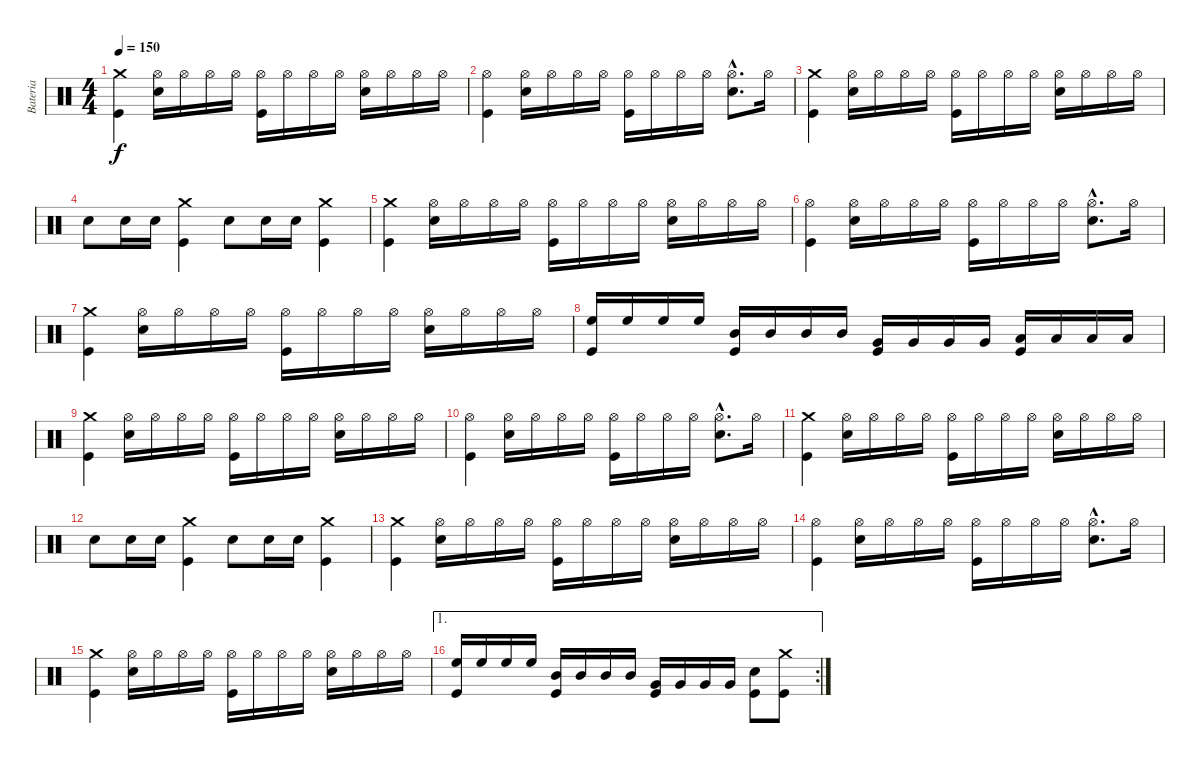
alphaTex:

\track ("Bateria" "Bateria") {instrument percussion}
\staff {score}
\articulation defaults
\ts (4 4)
\tempo 150
\clef neutral
\ks c
("Crash medium (hit)" "Kick (hit)").4{dy f} ("Hi-Hat (open)" "Snare (hit) 2").16 "Hi-Hat (open)".16 "Hi-Hat (open)".16 "Hi-Hat (open)".16 ("Hi-Hat (open)" "Kick (hit)").16 "Hi-Hat (open)".16 "Hi-Hat (open)".16 "Hi-Hat (open)".16 ("Hi-Hat (open)" "Snare (hit) 2").16 "Hi-Hat (open)".16 "Hi-Hat (open)".16 "Hi-Hat (open)".16 |
("Hi-Hat (open)" "Kick (hit)").4 ("Hi-Hat (open)" "Snare (hit) 2").16 "Hi-Hat (open)".16 "Hi-Hat (open)".16 "Hi-Hat (open)".16 ("Hi-Hat (open)" "Kick (hit)").16 "Hi-Hat (open)".16 "Hi-Hat (open)".16 "Hi-Hat (open)".16 ("Hi-Hat (open)"{hac} "Snare (hit) 2"{hac}).8{d} "Hi-Hat (open)".16 |
("Crash medium (hit)" "Kick (hit)").4 ("Hi-Hat (open)" "Snare (hit) 2").16 "Hi-Hat (open)".16 "Hi-Hat (open)".16 "Hi-Hat (open)".16 ("Hi-Hat (open)" "Kick (hit)").16 "Hi-Hat (open)".16 "Hi-Hat (open)".16 "Hi-Hat (open)".16 ("Hi-Hat (open)" "Snare (hit) 2").16 "Hi-Hat (open)".16 "Hi-Hat (open)".16 "Hi-Hat (open)".16 |
"Snare (hit) 2".8 "Snare (hit) 2".16 "Snare (hit) 2".16 ("Crash medium (hit)" "Kick (hit)").4 "Snare (hit) 2".8 "Snare (hit) 2".16 "Snare (hit) 2".16 ("Crash medium (hit)" "Kick (hit)").4 |
("Crash medium (hit)" "Kick (hit)").4 ("Hi-Hat (open)" "Snare (hit) 2").16 "Hi-Hat (open)".16 "Hi-Hat (open)".16 "Hi-Hat (open)".16 ("Hi-Hat (open)" "Kick (hit)").16 "Hi-Hat (open)".16 "Hi-Hat (open)".16 "Hi-Hat (open)".16 ("Hi-Hat (open)" "Snare (hit) 2").16 "Hi-Hat (open)".16 "Hi-Hat (open)".16 "Hi-Hat (open)".16 |
("Hi-Hat (open)" "Kick (hit)").4 ("Hi-Hat (open)" "Snare (hit) 2").16 "Hi-Hat (open)".16 "Hi-Hat (open)".16 "Hi-Hat (open)".16 ("Hi-Hat (open)" "Kick (hit)").16 "Hi-Hat (open)".16 "Hi-Hat (open)".16 "Hi-Hat (open)".16 ("Hi-Hat (open)"{hac} "Snare (hit) 2"{hac}).8{d} "Hi-Hat (open)".16 |
("Crash medium (hit)" "Kick (hit)").4 ("Hi-Hat (open)" "Snare (hit) 2").16 "Hi-Hat (open)".16 "Hi-Hat (open)".16 "Hi-Hat (open)".16 ("Hi-Hat (open)" "Kick (hit)").16 "Hi-Hat (open)".16 "Hi-Hat (open)".16 "Hi-Hat (open)".16 ("Hi-Hat (open)" "Snare (hit) 2").16 "Hi-Hat (open)".16 "Hi-Hat (open)".16 "Hi-Hat (open)".16 |
("High Floor Tom (hit)" "Kick (hit)").16 "High Floor Tom (hit)".16 "High Floor Tom (hit)".16 "High Floor Tom (hit)".16 ("Mid Tom (hit)" "Kick (hit)").16 "Mid Tom (hit)".16 "Mid Tom (hit)".16 "Mid Tom (hit)".16 ("Very Low Tom (hit)" "Kick (hit)").16 "Very Low Tom (hit)".16 "Very Low Tom (hit)".16 "Very Low Tom (hit)".16 ("Low Floor Tom (hit)" "Kick (hit)").16 "Low Floor Tom (hit)".16 "Low Floor Tom (hit)".16 "Low Floor Tom (hit)".16 |
("Crash medium (hit)" "Kick (hit)").4 ("Hi-Hat (open)" "Snare (hit) 2").16 "Hi-Hat (open)".16 "Hi-Hat (open)".16 "Hi-Hat (open)".16 ("Hi-Hat (open)" "Kick (hit)").16 "Hi-Hat (open)".16 "Hi-Hat (open)".16 "Hi-Hat (open)".16 ("Hi-Hat (open)" "Snare (hit) 2").16 "Hi-Hat (open)".16 "Hi-Hat (open)".16 "Hi-Hat (open)".16 |
("Hi-Hat (open)" "Kick (hit)").4 ("Hi-Hat (open)" "Snare (hit) 2").16 "Hi-Hat (open)".16 "Hi-Hat (open)".16 "Hi-Hat (open)".16 ("Hi-Hat (open)" "Kick (hit)").16 "Hi-Hat (open)".16 "Hi-Hat (open)".16 "Hi-Hat (open)".16 ("Hi-Hat (open)"{hac} "Snare (hit) 2"{hac}).8{d} "Hi-Hat (open)".16 |
("Crash medium (hit)" "Kick (hit)").4 ("Hi-Hat (open)" "Snare (hit) 2").16 "Hi-Hat (open)".16 "Hi-Hat (open)".16 "Hi-Hat (open)".16 ("Hi-Hat (open)" "Kick (hit)").16 "Hi-Hat (open)".16 "Hi-Hat (open)".16 "Hi-Hat (open)".16 ("Hi-Hat (open)" "Snare (hit) 2").16 "Hi-Hat (open)".16 "Hi-Hat (open)".16 "Hi-Hat (open)".16 |
"Snare (hit) 2".8 "Snare (hit) 2".16 "Snare (hit) 2".16 ("Crash medium (hit)" "Kick (hit)").4 "Snare (hit) 2".8 "Snare (hit) 2".16 "Snare (hit) 2".16 ("Crash medium (hit)" "Kick (hit)").4 |
("Crash medium (hit)" "Kick (hit)").4 ("Hi-Hat (open)" "Snare (hit) 2").16 "Hi-Hat (open)".16 "Hi-Hat (open)".16 "Hi-Hat (open)".16 ("Hi-Hat (open)" "Kick (hit)").16 "Hi-Hat (open)".16 "Hi-Hat (open)".16 "Hi-Hat (open)".16 ("Hi-Hat (open)" "Snare (hit) 2").16 "Hi-Hat (open)".16 "Hi-Hat (open)".16 "Hi-Hat (open)".16 |
("Hi-Hat (open)" "Kick (hit)").4 ("Hi-Hat (open)" "Snare (hit) 2").16 "Hi-Hat (open)".16 "Hi-Hat (open)".16 "Hi-Hat (open)".16 ("Hi-Hat (open)" "Kick (hit)").16 "Hi-Hat (open)".16 "Hi-Hat (open)".16 "Hi-Hat (open)".16 ("Hi-Hat (open)"{hac} "Snare (hit) 2"{hac}).8{d} "Hi-Hat (open)".16 |
("Crash medium (hit)" "Kick (hit)").4 ("Hi-Hat (open)" "Snare (hit) 2").16 "Hi-Hat (open)".16 "Hi-Hat (open)".16 "Hi-Hat (open)".16 ("Hi-Hat (open)" "Kick (hit)").16 "Hi-Hat (open)".16 "Hi-Hat (open)".16 "Hi-Hat (open)".16 ("Hi-Hat (open)" "Snare (hit) 2").16 "Hi-Hat (open)".16 "Hi-Hat (open)".16 "Hi-Hat (open)".16 |
\ae 1
\rc 2
("High Floor Tom (hit)" "Kick (hit)").16 "High Floor Tom (hit)".16 "High Floor Tom (hit)".16 "High Floor Tom (hit)".16 ("Mid Tom (hit)" "Kick (hit)").16 "Mid Tom (hit)".16 "Mid Tom (hit)".16 "Mid Tom (hit)".16 ("Very Low Tom (hit)" "Kick (hit)").16 "Very Low Tom (hit)".16 "Very Low Tom (hit)".16 "Very Low Tom (hit)".16 ("Snare (hit) 2" "Kick (hit)").8 ("Crash medium (hit)" "Kick (hit)").8
